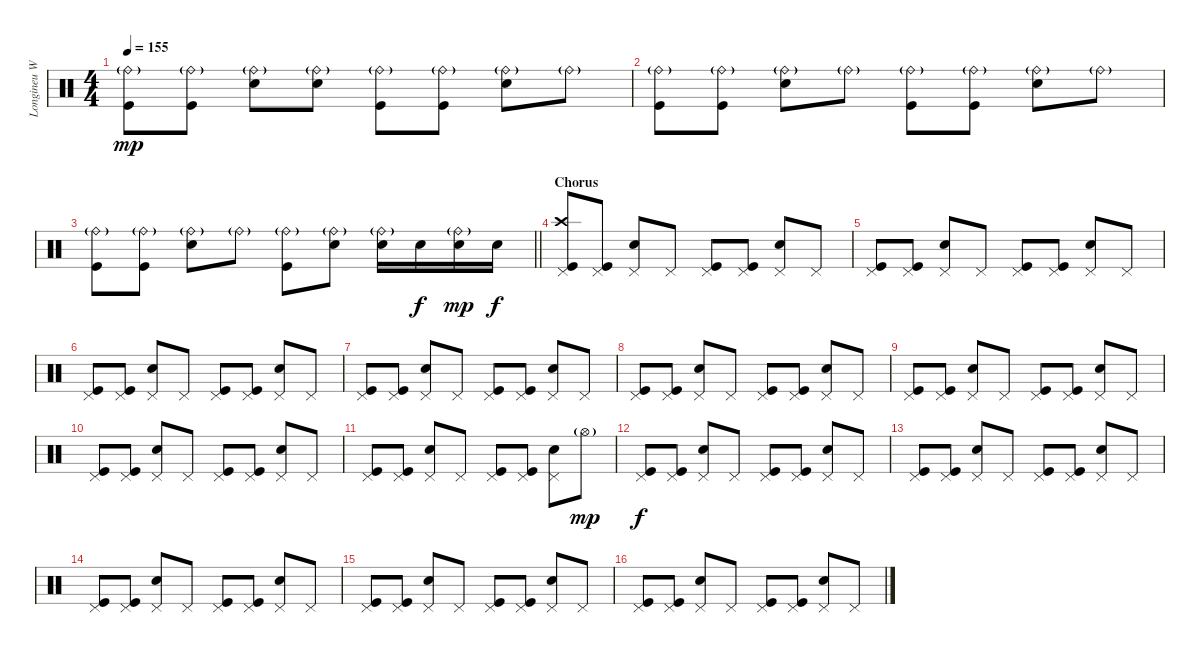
\track ("Longineu W. Parsons III - Drums" "Longineu W") {instrument percussion}
\staff {score}
\articulation defaults
\ts (4 4)
\tempo 155
\clef neutral
\ks c
("Ride (bell)"{g} "Kick (hit)").8{dy mp} ("Ride (bell)"{g} "Kick (hit)").8 ("Ride (bell)"{g} "Snare (hit) 2").8 ("Ride (bell)"{g} "Snare (hit) 2").8 ("Ride (bell)"{g} "Kick (hit)").8 ("Ride (bell)"{g} "Kick (hit)").8 ("Ride (bell)"{g} "Snare (hit) 2").8 "Ride (bell)"{g}.8 |
("Ride (bell)"{g} "Kick (hit)").8 ("Ride (bell)"{g} "Kick (hit)").8 ("Ride (bell)"{g} "Snare (hit) 2").8 "Ride (bell)"{g}.8 ("Ride (bell)"{g} "Kick (hit)").8 ("Ride (bell)"{g} "Kick (hit)").8 ("Ride (bell)"{g} "Snare (hit) 2").8 "Ride (bell)"{g}.8 |
\barLineRight lightlight
("Ride (bell)"{g} "Kick (hit)").8 ("Ride (bell)"{g} "Kick (hit)").8 ("Ride (bell)"{g} "Snare (hit) 2").8 "Ride (bell)"{g}.8 ("Ride (bell)"{g} "Kick (hit)").8 ("Ride (bell)"{g} "Snare (hit) 2").8 ("Ride (bell)"{g} "Snare (hit) 2").16 "Snare (hit) 2".16{dy f} ("Ride (bell)"{g} "Snare (hit) 2").16{dy mp} "Snare (hit) 2".16{dy f} |
\section ("" "Chorus")
("Crash high (hit)" "Pedal Hi-Hat (hit)" "Kick (hit)").8 ("Pedal Hi-Hat (hit)" "Kick (hit)").8 ("Pedal Hi-Hat (hit)" "Snare (hit) 2").8 "Pedal Hi-Hat (hit)".8 ("Pedal Hi-Hat (hit)" "Kick (hit)").8 ("Pedal Hi-Hat (hit)" "Kick (hit)").8 ("Pedal Hi-Hat (hit)" "Snare (hit) 2").8 "Pedal Hi-Hat (hit)".8 |
("Pedal Hi-Hat (hit)" "Kick (hit)").8 ("Pedal Hi-Hat (hit)" "Kick (hit)").8 ("Pedal Hi-Hat (hit)" "Snare (hit) 2").8 "Pedal Hi-Hat (hit)".8 ("Pedal Hi-Hat (hit)" "Kick (hit)").8 ("Pedal Hi-Hat (hit)" "Kick (hit)").8 ("Pedal Hi-Hat (hit)" "Snare (hit) 2").8 "Pedal Hi-Hat (hit)".8 |
("Pedal Hi-Hat (hit)" "Kick (hit)").8 ("Pedal Hi-Hat (hit)" "Kick (hit)").8 ("Pedal Hi-Hat (hit)" "Snare (hit) 2").8 "Pedal Hi-Hat (hit)".8 ("Pedal Hi-Hat (hit)" "Kick (hit)").8 ("Pedal Hi-Hat (hit)" "Kick (hit)").8 ("Pedal Hi-Hat (hit)" "Snare (hit) 2").8 "Pedal Hi-Hat (hit)".8 |
("Pedal Hi-Hat (hit)" "Kick (hit)").8 ("Pedal Hi-Hat (hit)" "Kick (hit)").8 ("Pedal Hi-Hat (hit)" "Snare (hit) 2").8 "Pedal Hi-Hat (hit)".8 ("Pedal Hi-Hat (hit)" "Kick (hit)").8 ("Pedal Hi-Hat (hit)" "Kick (hit)").8 ("Pedal Hi-Hat (hit)" "Snare (hit) 2").8 "Pedal Hi-Hat (hit)".8 |
("Pedal Hi-Hat (hit)" "Kick (hit)").8 ("Pedal Hi-Hat (hit)" "Kick (hit)").8 ("Pedal Hi-Hat (hit)" "Snare (hit) 2").8 "Pedal Hi-Hat (hit)".8 ("Pedal Hi-Hat (hit)" "Kick (hit)").8 ("Pedal Hi-Hat (hit)" "Kick (hit)").8 ("Pedal Hi-Hat (hit)" "Snare (hit) 2").8 "Pedal Hi-Hat (hit)".8 |
("Pedal Hi-Hat (hit)" "Kick (hit)").8 ("Pedal Hi-Hat (hit)" "Kick (hit)").8 ("Pedal Hi-Hat (hit)" "Snare (hit) 2").8 "Pedal Hi-Hat (hit)".8 ("Pedal Hi-Hat (hit)" "Kick (hit)").8 ("Pedal Hi-Hat (hit)" "Kick (hit)").8 ("Pedal Hi-Hat (hit)" "Snare (hit) 2").8 "Pedal Hi-Hat (hit)".8 |
("Pedal Hi-Hat (hit)" "Kick (hit)").8 ("Pedal Hi-Hat (hit)" "Kick (hit)").8 ("Pedal Hi-Hat (hit)" "Snare (hit) 2").8 "Pedal Hi-Hat (hit)".8 ("Pedal Hi-Hat (hit)" "Kick (hit)").8 ("Pedal Hi-Hat (hit)" "Kick (hit)").8 ("Pedal Hi-Hat (hit)" "Snare (hit) 2").8 "Pedal Hi-Hat (hit)".8 |
("Pedal Hi-Hat (hit)" "Kick (hit)").8 ("Pedal Hi-Hat (hit)" "Kick (hit)").8 ("Pedal Hi-Hat (hit)" "Snare (hit) 2").8 "Pedal Hi-Hat (hit)".8 ("Pedal Hi-Hat (hit)" "Kick (hit)").8 ("Pedal Hi-Hat (hit)" "Kick (hit)").8 ("Pedal Hi-Hat (hit)" "Snare (hit) 2").8 "Hi-Hat (open)"{g}.8{dy mp} |
("Pedal Hi-Hat (hit)" "Kick (hit)").8{dy f} ("Pedal Hi-Hat (hit)" "Kick (hit)").8 ("Pedal Hi-Hat (hit)" "Snare (hit) 2").8 "Pedal Hi-Hat (hit)".8 ("Pedal Hi-Hat (hit)" "Kick (hit)").8 ("Pedal Hi-Hat (hit)" "Kick (hit)").8 ("Pedal Hi-Hat (hit)" "Snare (hit) 2").8 "Pedal Hi-Hat (hit)".8 |
("Pedal Hi-Hat (hit)" "Kick (hit)").8 ("Pedal Hi-Hat (hit)" "Kick (hit)").8 ("Pedal Hi-Hat (hit)" "Snare (hit) 2").8 "Pedal Hi-Hat (hit)".8 ("Pedal Hi-Hat (hit)" "Kick (hit)").8 ("Pedal Hi-Hat (hit)" "Kick (hit)").8 ("Pedal Hi-Hat (hit)" "Snare (hit) 2").8 "Pedal Hi-Hat (hit)".8 |
("Pedal Hi-Hat (hit)" "Kick (hit)").8 ("Pedal Hi-Hat (hit)" "Kick (hit)").8 ("Pedal Hi-Hat (hit)" "Snare (hit) 2").8 "Pedal Hi-Hat (hit)".8 ("Pedal Hi-Hat (hit)" "Kick (hit)").8 ("Pedal Hi-Hat (hit)" "Kick (hit)").8 ("Pedal Hi-Hat (hit)" "Snare (hit) 2").8 "Pedal Hi-Hat (hit)".8 |
("Pedal Hi-Hat (hit)" "Kick (hit)").8 ("Pedal Hi-Hat (hit)" "Kick (hit)").8 ("Pedal Hi-Hat (hit)" "Snare (hit) 2").8 "Pedal Hi-Hat (hit)".8 ("Pedal Hi-Hat (hit)" "Kick (hit)").8 ("Pedal Hi-Hat (hit)" "Kick (hit)").8 ("Pedal Hi-Hat (hit)" "Snare (hit) 2").8 "Pedal Hi-Hat (hit)".8 |
("Pedal Hi-Hat (hit)" "Kick (hit)").8 ("Pedal Hi-Hat (hit)" "Kick (hit)").8 ("Pedal Hi-Hat (hit)" "Snare (hit) 2").8 "Pedal Hi-Hat (hit)".8 ("Pedal Hi-Hat (hit)" "Kick (hit)").8 ("Pedal Hi-Hat (hit)" "Kick (hit)").8 ("Pedal Hi-Hat (hit)" "Snare (hit) 2").8 "Pedal Hi-Hat (hit)".8
